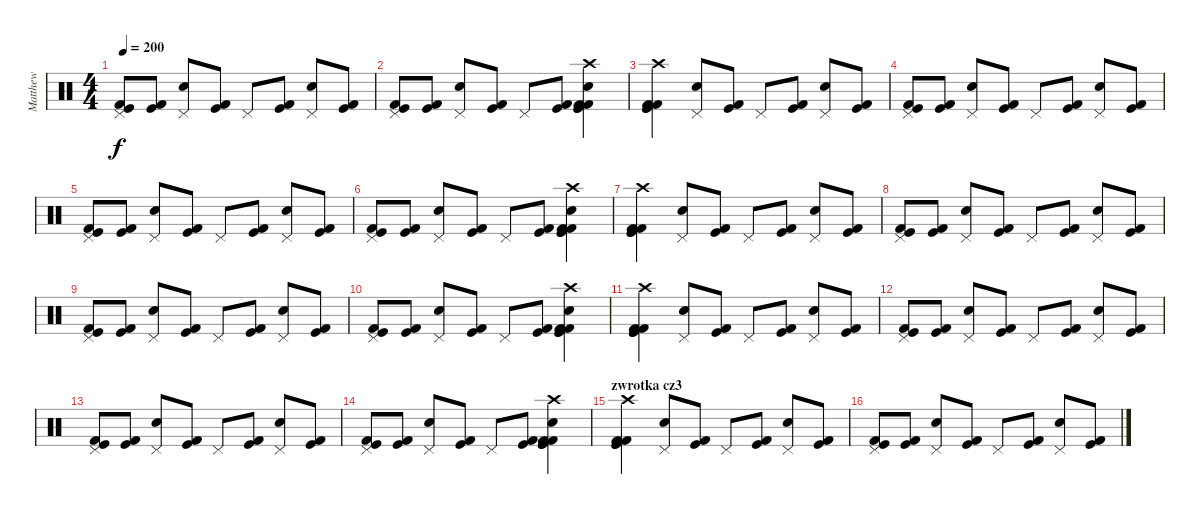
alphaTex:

\track ("Matthew" "Matthew") {instrument percussion}
\staff {score}
\articulation defaults
\ts (4 4)
\tempo 200
\clef neutral
\ks c
("Kick (hit) 2" "Kick (hit)" "Pedal Hi-Hat (hit)").8{dy f} ("Kick (hit) 2" "Kick (hit)").8 ("Snare (hit) 2" "Pedal Hi-Hat (hit)").8 ("Kick (hit) 2" "Kick (hit)").8 "Pedal Hi-Hat (hit)".8 ("Kick (hit) 2" "Kick (hit)").8 ("Pedal Hi-Hat (hit)" "Snare (hit) 2").8 ("Kick (hit) 2" "Kick (hit)").8 |
("Kick (hit) 2" "Kick (hit)" "Pedal Hi-Hat (hit)").8 ("Kick (hit) 2" "Kick (hit)").8 ("Snare (hit) 2" "Pedal Hi-Hat (hit)").8 ("Kick (hit) 2" "Kick (hit)").8 "Pedal Hi-Hat (hit)".8 ("Kick (hit) 2" "Kick (hit)").8 ("Kick (hit)" "Snare (hit) 2" "Crash high (hit)" "Kick (hit) 2" "Kick (hit)" "Kick (hit) 2").4 |
("Kick (hit) 2" "Kick (hit)" "Kick (hit)" "Kick (hit) 2" "Crash high (hit)").4 ("Pedal Hi-Hat (hit)" "Snare (hit) 2").8 ("Kick (hit)" "Kick (hit) 2").8 "Pedal Hi-Hat (hit)".8 ("Kick (hit)" "Kick (hit) 2").8 ("Snare (hit) 2" "Pedal Hi-Hat (hit)").8 ("Kick (hit)" "Kick (hit) 2").8 |
("Kick (hit) 2" "Kick (hit)" "Pedal Hi-Hat (hit)").8 ("Kick (hit) 2" "Kick (hit)").8 ("Snare (hit) 2" "Pedal Hi-Hat (hit)").8 ("Kick (hit) 2" "Kick (hit)").8 "Pedal Hi-Hat (hit)".8 ("Kick (hit) 2" "Kick (hit)").8 ("Pedal Hi-Hat (hit)" "Snare (hit) 2").8 ("Kick (hit) 2" "Kick (hit)").8 |
("Kick (hit) 2" "Kick (hit)" "Pedal Hi-Hat (hit)").8 ("Kick (hit) 2" "Kick (hit)").8 ("Snare (hit) 2" "Pedal Hi-Hat (hit)").8 ("Kick (hit) 2" "Kick (hit)").8 "Pedal Hi-Hat (hit)".8 ("Kick (hit) 2" "Kick (hit)").8 ("Pedal Hi-Hat (hit)" "Snare (hit) 2").8 ("Kick (hit) 2" "Kick (hit)").8 |
("Kick (hit) 2" "Kick (hit)" "Pedal Hi-Hat (hit)").8 ("Kick (hit) 2" "Kick (hit)").8 ("Snare (hit) 2" "Pedal Hi-Hat (hit)").8 ("Kick (hit) 2" "Kick (hit)").8 "Pedal Hi-Hat (hit)".8 ("Kick (hit) 2" "Kick (hit)").8 ("Kick (hit)" "Snare (hit) 2" "Crash high (hit)" "Kick (hit) 2" "Kick (hit)" "Kick (hit) 2").4 |
("Kick (hit) 2" "Kick (hit)" "Kick (hit)" "Kick (hit) 2" "Crash high (hit)").4 ("Pedal Hi-Hat (hit)" "Snare (hit) 2").8 ("Kick (hit)" "Kick (hit) 2").8 "Pedal Hi-Hat (hit)".8 ("Kick (hit)" "Kick (hit) 2").8 ("Snare (hit) 2" "Pedal Hi-Hat (hit)").8 ("Kick (hit)" "Kick (hit) 2").8 |
("Kick (hit) 2" "Kick (hit)" "Pedal Hi-Hat (hit)").8 ("Kick (hit) 2" "Kick (hit)").8 ("Snare (hit) 2" "Pedal Hi-Hat (hit)").8 ("Kick (hit) 2" "Kick (hit)").8 "Pedal Hi-Hat (hit)".8 ("Kick (hit) 2" "Kick (hit)").8 ("Pedal Hi-Hat (hit)" "Snare (hit) 2").8 ("Kick (hit) 2" "Kick (hit)").8 |
("Kick (hit) 2" "Kick (hit)" "Pedal Hi-Hat (hit)").8 ("Kick (hit) 2" "Kick (hit)").8 ("Snare (hit) 2" "Pedal Hi-Hat (hit)").8 ("Kick (hit) 2" "Kick (hit)").8 "Pedal Hi-Hat (hit)".8 ("Kick (hit) 2" "Kick (hit)").8 ("Pedal Hi-Hat (hit)" "Snare (hit) 2").8 ("Kick (hit) 2" "Kick (hit)").8 |
("Kick (hit) 2" "Kick (hit)" "Pedal Hi-Hat (hit)").8 ("Kick (hit) 2" "Kick (hit)").8 ("Snare (hit) 2" "Pedal Hi-Hat (hit)").8 ("Kick (hit) 2" "Kick (hit)").8 "Pedal Hi-Hat (hit)".8 ("Kick (hit) 2" "Kick (hit)").8 ("Kick (hit)" "Snare (hit) 2" "Crash high (hit)" "Kick (hit) 2" "Kick (hit)" "Kick (hit) 2").4 |
("Kick (hit) 2" "Kick (hit)" "Kick (hit)" "Kick (hit) 2" "Crash high (hit)").4 ("Pedal Hi-Hat (hit)" "Snare (hit) 2").8 ("Kick (hit)" "Kick (hit) 2").8 "Pedal Hi-Hat (hit)".8 ("Kick (hit)" "Kick (hit) 2").8 ("Snare (hit) 2" "Pedal Hi-Hat (hit)").8 ("Kick (hit)" "Kick (hit) 2").8 |
("Kick (hit) 2" "Kick (hit)" "Pedal Hi-Hat (hit)").8 ("Kick (hit) 2" "Kick (hit)").8 ("Snare (hit) 2" "Pedal Hi-Hat (hit)").8 ("Kick (hit) 2" "Kick (hit)").8 "Pedal Hi-Hat (hit)".8 ("Kick (hit) 2" "Kick (hit)").8 ("Pedal Hi-Hat (hit)" "Snare (hit) 2").8 ("Kick (hit) 2" "Kick (hit)").8 |
("Kick (hit) 2" "Kick (hit)" "Pedal Hi-Hat (hit)").8 ("Kick (hit) 2" "Kick (hit)").8 ("Snare (hit) 2" "Pedal Hi-Hat (hit)").8 ("Kick (hit) 2" "Kick (hit)").8 "Pedal Hi-Hat (hit)".8 ("Kick (hit) 2" "Kick (hit)").8 ("Pedal Hi-Hat (hit)" "Snare (hit) 2").8 ("Kick (hit) 2" "Kick (hit)").8 |
("Kick (hit) 2" "Kick (hit)" "Pedal Hi-Hat (hit)").8 ("Kick (hit) 2" "Kick (hit)").8 ("Snare (hit) 2" "Pedal Hi-Hat (hit)").8 ("Kick (hit) 2" "Kick (hit)").8 "Pedal Hi-Hat (hit)".8 ("Kick (hit) 2" "Kick (hit)").8 ("Kick (hit)" "Snare (hit) 2" "Crash high (hit)" "Kick (hit) 2" "Kick (hit)" "Kick (hit) 2").4 |
\section ("" "zwrotka cz3")
("Kick (hit) 2" "Kick (hit)" "Kick (hit)" "Kick (hit) 2" "Crash high (hit)").4 ("Pedal Hi-Hat (hit)" "Snare (hit) 2").8 ("Kick (hit)" "Kick (hit) 2").8 "Pedal Hi-Hat (hit)".8 ("Kick (hit)" "Kick (hit) 2").8 ("Snare (hit) 2" "Pedal Hi-Hat (hit)").8 ("Kick (hit)" "Kick (hit) 2").8 |
("Kick (hit) 2" "Kick (hit)" "Pedal Hi-Hat (hit)").8 ("Kick (hit) 2" "Kick (hit)").8 ("Snare (hit) 2" "Pedal Hi-Hat (hit)").8 ("Kick (hit) 2" "Kick (hit)").8 "Pedal Hi-Hat (hit)".8 ("Kick (hit) 2" "Kick (hit)").8 ("Pedal Hi-Hat (hit)" "Snare (hit) 2").8 ("Kick (hit) 2" "Kick (hit)").8
